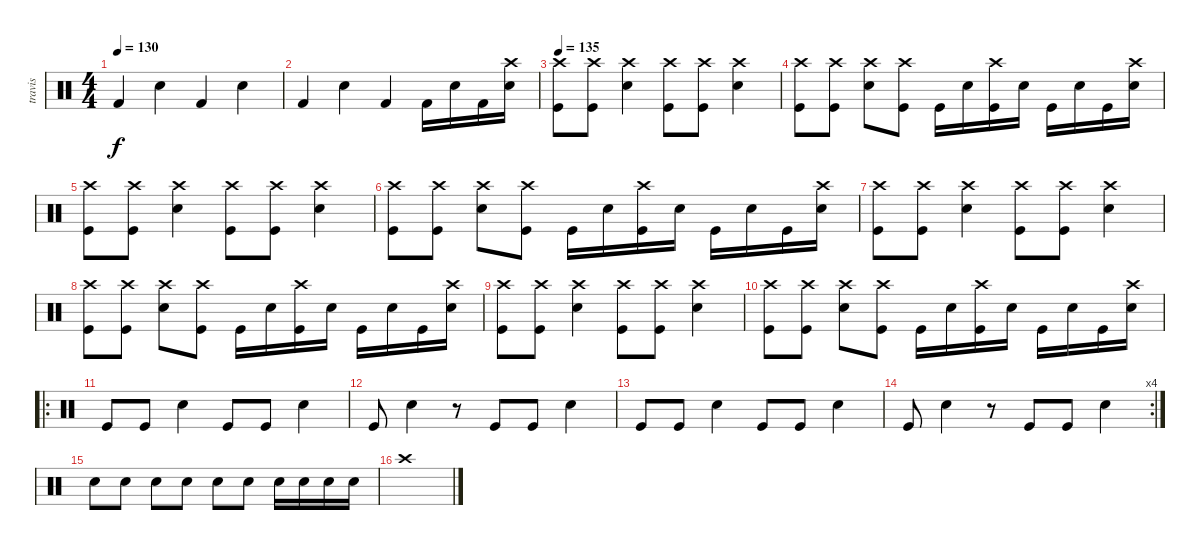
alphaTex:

\track ("travis" "travis") {instrument percussion}
\staff {score}
\articulation defaults
\ts (4 4)
\tempo 130
\clef neutral
\ks c "Kick (hit) 2".4{dy f} "Electric Snare (hit)".4 "Kick (hit) 2".4 "Electric Snare (hit)".4
|
"Kick (hit) 2".4 "Electric Snare (hit)".4 "Kick (hit) 2".4 "Kick (hit) 2".16 "Electric Snare (hit)".16 "Kick (hit) 2".16 ("Crash high (hit)" "Electric Snare (hit)").16 |
\tempo 135
("Crash high (hit)" "Kick (hit)").8 ("Crash high (hit)" "Kick (hit)").8 ("Crash high (hit)" "Electric Snare (hit)").4 ("Crash high (hit)" "Kick (hit)").8 ("Crash high (hit)" "Kick (hit)").8 ("Crash high (hit)" "Electric Snare (hit)").4 |
("Crash high (hit)" "Kick (hit)").8 ("Crash high (hit)" "Kick (hit)").8 ("Crash high (hit)" "Electric Snare (hit)").8 ("Crash high (hit)" "Kick (hit)").8 "Kick (hit)".16 "Electric Snare (hit)".16 ("Crash high (hit)" "Kick (hit)").16 "Electric Snare (hit)".16 "Kick (hit)".16 "Electric Snare (hit)".16 "Kick (hit)".16 ("Crash high (hit)" "Electric Snare (hit)").16 |
("Crash high (hit)" "Kick (hit)").8 ("Crash high (hit)" "Kick (hit)").8 ("Crash high (hit)" "Electric Snare (hit)").4 ("Crash high (hit)" "Kick (hit)").8 ("Crash high (hit)" "Kick (hit)").8 ("Crash high (hit)" "Electric Snare (hit)").4 |
("Crash high (hit)" "Kick (hit)").8 ("Crash high (hit)" "Kick (hit)").8 ("Crash high (hit)" "Electric Snare (hit)").8 ("Crash high (hit)" "Kick (hit)").8 "Kick (hit)".16 "Electric Snare (hit)".16 ("Crash high (hit)" "Kick (hit)").16 "Electric Snare (hit)".16 "Kick (hit)".16 "Electric Snare (hit)".16 "Kick (hit)".16 ("Crash high (hit)" "Electric Snare (hit)").16 |
("Crash high (hit)" "Kick (hit)").8 ("Crash high (hit)" "Kick (hit)").8 ("Crash high (hit)" "Electric Snare (hit)").4 ("Crash high (hit)" "Kick (hit)").8 ("Crash high (hit)" "Kick (hit)").8 ("Crash high (hit)" "Electric Snare (hit)").4 |
("Crash high (hit)" "Kick (hit)").8 ("Crash high (hit)" "Kick (hit)").8 ("Crash high (hit)" "Electric Snare (hit)").8 ("Crash high (hit)" "Kick (hit)").8 "Kick (hit)".16 "Electric Snare (hit)".16 ("Crash high (hit)" "Kick (hit)").16 "Electric Snare (hit)".16 "Kick (hit)".16 "Electric Snare (hit)".16 "Kick (hit)".16 ("Crash high (hit)" "Electric Snare (hit)").16 |
("Crash high (hit)" "Kick (hit)").8 ("Crash high (hit)" "Kick (hit)").8 ("Crash high (hit)" "Electric Snare (hit)").4 ("Crash high (hit)" "Kick (hit)").8 ("Crash high (hit)" "Kick (hit)").8 ("Crash high (hit)" "Electric Snare (hit)").4 |
("Crash high (hit)" "Kick (hit)").8 ("Crash high (hit)" "Kick (hit)").8 ("Crash high (hit)" "Electric Snare (hit)").8 ("Crash high (hit)" "Kick (hit)").8 "Kick (hit)".16 "Electric Snare (hit)".16 ("Crash high (hit)" "Kick (hit)").16 "Electric Snare (hit)".16 "Kick (hit)".16 "Electric Snare (hit)".16 "Kick (hit)".16 ("Crash high (hit)" "Electric Snare (hit)").16 |
\ro "Kick (hit)".8 "Kick (hit)".8 "Electric Snare (hit)".4 "Kick (hit)".8 "Kick (hit)".8 "Electric Snare (hit)".4
|
"Kick (hit)".8 "Electric Snare (hit)".4 r.8 "Kick (hit)".8 "Kick (hit)".8 "Electric Snare (hit)".4 |
"Kick (hit)".8 "Kick (hit)".8 "Electric Snare (hit)".4 "Kick (hit)".8 "Kick (hit)".8 "Electric Snare (hit)".4 |
\rc 4 "Kick (hit)".8 "Electric Snare (hit)".4
r.8 "Kick (hit)".8 "Kick (hit)".8 "Electric Snare (hit)".4 |
"Electric Snare (hit)".8 "Electric Snare (hit)".8 "Electric Snare (hit)".8 "Electric Snare (hit)".8 "Electric Snare (hit)".8 "Electric Snare (hit)".8 "Electric Snare (hit)".16 "Electric Snare (hit)".16 "Electric Snare (hit)".16 "Electric Snare (hit)".16 |
"Crash high (hit)".1
